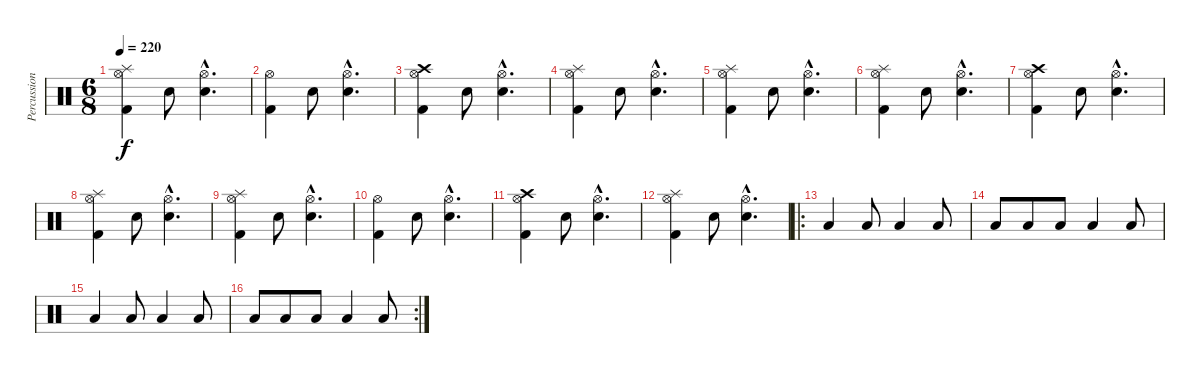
\track ("Percussion" "Percussion") {instrument percussion}
\staff {score}
\articulation defaults
\ts (6 8)
\tempo 220
\clef neutral
\ks c
("Hi-Hat (open)" "Splash (hit)" "Kick (hit) 2").4{dy f} "Snare (hit) 2".8 ("Hi-Hat (open)"{hac} "Electric Snare (hit)"{hac}).4{d} |
("Hi-Hat (open)" "Kick (hit) 2").4 "Snare (hit) 2".8 ("Hi-Hat (open)"{hac} "Electric Snare (hit)"{hac}).4{d} |
("Hi-Hat (open)" "Crash high (hit)" "Kick (hit) 2").4 "Snare (hit) 2".8 ("Hi-Hat (open)"{hac} "Electric Snare (hit)"{hac}).4{d} |
("Hi-Hat (open)" "Splash (hit)" "Kick (hit) 2").4 "Snare (hit) 2".8 ("Hi-Hat (open)"{hac} "Electric Snare (hit)"{hac}).4{d} |
("Hi-Hat (open)" "Splash (hit)" "Kick (hit) 2").4 "Snare (hit) 2".8 ("Hi-Hat (open)"{hac} "Electric Snare (hit)"{hac}).4{d} |
("Hi-Hat (open)" "Splash (hit)" "Kick (hit) 2").4 "Snare (hit) 2".8 ("Hi-Hat (open)"{hac} "Electric Snare (hit)"{hac}).4{d} |
("Hi-Hat (open)" "Crash high (hit)" "Kick (hit) 2").4 "Snare (hit) 2".8 ("Hi-Hat (open)"{hac} "Electric Snare (hit)"{hac}).4{d} |
("Hi-Hat (open)" "Splash (hit)" "Kick (hit) 2").4 "Snare (hit) 2".8 ("Hi-Hat (open)"{hac} "Electric Snare (hit)"{hac}).4{d} |
("Hi-Hat (open)" "Splash (hit)" "Kick (hit) 2").4 "Snare (hit) 2".8 ("Hi-Hat (open)"{hac} "Electric Snare (hit)"{hac}).4{d} |
("Hi-Hat (open)" "Kick (hit) 2").4 "Snare (hit) 2".8 ("Hi-Hat (open)"{hac} "Electric Snare (hit)"{hac}).4{d} |
("Hi-Hat (open)" "Crash high (hit)" "Kick (hit) 2").4 "Snare (hit) 2".8 ("Hi-Hat (open)"{hac} "Electric Snare (hit)"{hac}).4{d} |
("Hi-Hat (open)" "Splash (hit)" "Kick (hit) 2").4 "Snare (hit) 2".8 ("Hi-Hat (open)"{hac} "Electric Snare (hit)"{hac}).4{d} |
\ro "Low Floor Tom (hit)".4{volume 7} "Low Floor Tom (hit)".8 "Low Tom (hit)".4 "Low Tom (hit)".8
|
"Low Floor Tom (hit)".8 "Low Floor Tom (hit)".8 "Low Floor Tom (hit)".8 "Low Tom (hit)".4 "Low Tom (hit)".8 |
"Low Floor Tom (hit)".4 "Low Floor Tom (hit)".8 "Low Tom (hit)".4 "Low Tom (hit)".8 |
\rc 2 "Low Floor Tom (hit)".8 "Low Floor Tom (hit)".8 "Low Floor Tom (hit)".8 "Low Tom (hit)".4 "Low Tom (hit)".8
